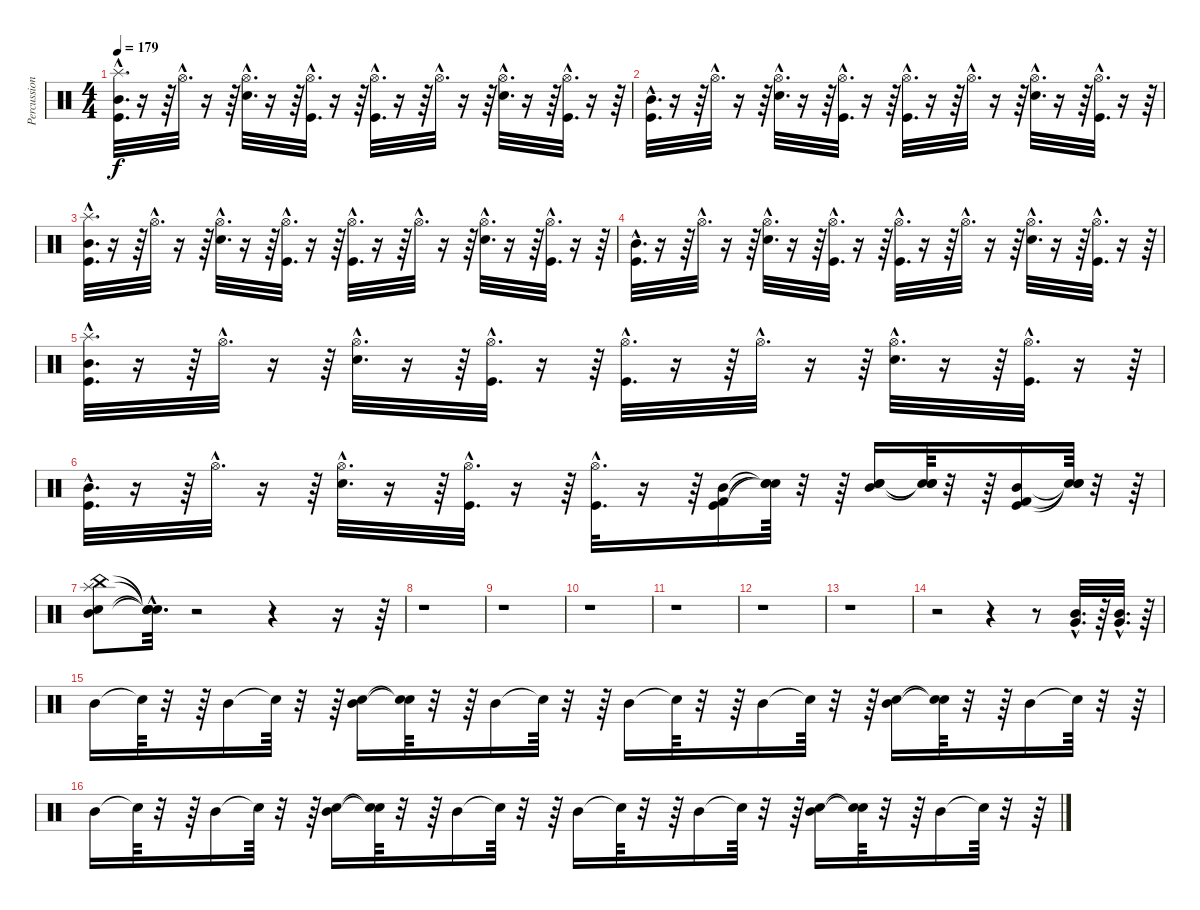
\track ("Percussion" "Percussion") {instrument percussion}
\staff {score}
\articulation defaults
\ts (4 4)
\tempo 179
\clef neutral
\ks c
("Splash (hit)"{hac} "Mid Tom (hit)"{hac} "Kick (hit)"{hac}).32{d dy f} r.16 r.64 "Hi-Hat (open)"{hac}.32{d} r.16 r.64 ("Hi-Hat (open)"{hac} "Snare (hit) 2"{hac}).32{d} r.16 r.64 ("Hi-Hat (open)"{hac} "Kick (hit)"{hac}).32{d} r.16 r.64 ("Hi-Hat (open)"{hac} "Kick (hit)"{hac}).32{d} r.16 r.64 "Hi-Hat (open)"{hac}.32{d} r.16 r.64 ("Hi-Hat (open)"{hac} "Snare (hit) 2"{hac}).32{d} r.16 r.64 ("Hi-Hat (open)"{hac} "Kick (hit)"{hac}).32{d} r.16 r.64 |
("Mid Tom (hit)"{hac} "Kick (hit)"{hac}).32{d} r.16 r.64 "Hi-Hat (open)"{hac}.32{d} r.16 r.64 ("Hi-Hat (open)"{hac} "Snare (hit) 2"{hac}).32{d} r.16 r.64 ("Hi-Hat (open)"{hac} "Kick (hit)"{hac}).32{d} r.16 r.64 ("Hi-Hat (open)"{hac} "Kick (hit)"{hac}).32{d} r.16 r.64 "Hi-Hat (open)"{hac}.32{d} r.16 r.64 ("Hi-Hat (open)"{hac} "Snare (hit) 2"{hac}).32{d} r.16 r.64 ("Hi-Hat (open)"{hac} "Kick (hit)"{hac}).32{d} r.16 r.64 |
("Splash (hit)"{hac} "Mid Tom (hit)"{hac} "Kick (hit)"{hac}).32{d} r.16 r.64 "Hi-Hat (open)"{hac}.32{d} r.16 r.64 ("Hi-Hat (open)"{hac} "Snare (hit) 2"{hac}).32{d} r.16 r.64 ("Hi-Hat (open)"{hac} "Kick (hit)"{hac}).32{d} r.16 r.64 ("Hi-Hat (open)"{hac} "Kick (hit)"{hac}).32{d} r.16 r.64 "Hi-Hat (open)"{hac}.32{d} r.16 r.64 ("Hi-Hat (open)"{hac} "Snare (hit) 2"{hac}).32{d} r.16 r.64 ("Hi-Hat (open)"{hac} "Kick (hit)"{hac}).32{d} r.16 r.64 |
("Mid Tom (hit)"{hac} "Kick (hit)"{hac}).32{d} r.16 r.64 "Hi-Hat (open)"{hac}.32{d} r.16 r.64 ("Hi-Hat (open)"{hac} "Snare (hit) 2"{hac}).32{d} r.16 r.64 ("Hi-Hat (open)"{hac} "Kick (hit)"{hac}).32{d} r.16 r.64 ("Hi-Hat (open)"{hac} "Kick (hit)"{hac}).32{d} r.16 r.64 "Hi-Hat (open)"{hac}.32{d} r.16 r.64 ("Hi-Hat (open)"{hac} "Snare (hit) 2"{hac}).32{d} r.16 r.64 ("Hi-Hat (open)"{hac} "Kick (hit)"{hac}).32{d} r.16 r.64 |
("Splash (hit)"{hac} "Mid Tom (hit)"{hac} "Kick (hit)"{hac}).32{d} r.16 r.64 "Hi-Hat (open)"{hac}.32{d} r.16 r.64 ("Hi-Hat (open)"{hac} "Snare (hit) 2"{hac}).32{d} r.16 r.64 ("Hi-Hat (open)"{hac} "Kick (hit)"{hac}).32{d} r.16 r.64 ("Hi-Hat (open)"{hac} "Kick (hit)"{hac}).32{d} r.16 r.64 "Hi-Hat (open)"{hac}.32{d} r.16 r.64 ("Hi-Hat (open)"{hac} "Snare (hit) 2"{hac}).32{d} r.16 r.64 ("Hi-Hat (open)"{hac} "Kick (hit)"{hac}).32{d} r.16 r.64 |
("Mid Tom (hit)"{hac} "Kick (hit)"{hac}).32{d} r.16 r.64 "Hi-Hat (open)"{hac}.32{d} r.16 r.64 ("Hi-Hat (open)"{hac} "Snare (hit) 2"{hac}).32{d} r.16 r.64 ("Hi-Hat (open)"{hac} "Kick (hit)"{hac}).32{d} r.16 r.64 ("Hi-Hat (open)"{hac} "Kick (hit)"{hac}).32{d} r.16 r.64 ("Mid Tom (hit)" "Kick (hit) 2" "Kick (hit)").16 ("Snare (hit)"{t} "Snare (hit)"{t} "Snare (hit)"{t}).64 r.32 r.64 ("Mid Tom (hit)" "Snare (hit) 2" "Electric Snare (hit)").16 ("Snare (hit)"{t} "Snare (hit)"{t} "Snare (hit)"{t}).64 r.32 r.64 ("Mid Tom (hit)" "Kick (hit)" "Kick (hit) 2").16 ("Snare (hit)"{t} "Snare (hit)"{t} "Snare (hit)"{t}).64 r.32 r.64 |
("Splash (hit)" "China (hit)" "Snare (hit) 2" "Mid Tom (hit)").8 ("Snare (hit)"{hac t} "Snare (hit)"{hac t} "Snare (hit)"{hac t} "Snare (hit)"{hac t}).32{d} r.2 r.4 r.16 r.64 |
r.1 |
r.1 |
r.1 |
r.1 |
r.1 |
r.1 |
r.2 r.4 r.8 ("Mid Tom (hit)"{hac} "Very Low Tom (hit)"{hac}).32{d} r.64 ("Mid Tom (hit)"{hac} "Very Low Tom (hit)"{hac}).32{d} r.64 |
"Mid Tom (hit)".16 "Snare (hit)"{t}.64 r.32 r.64 "Mid Tom (hit)".16 "Snare (hit)"{t}.64 r.32 r.64 ("Mid Tom (hit)" "Snare (hit) 2").16 ("Snare (hit)"{t} "Snare (hit)"{t}).64 r.32 r.64 "Mid Tom (hit)".16 "Snare (hit)"{t}.64 r.32 r.64 "Mid Tom (hit)".16 "Snare (hit)"{t}.64 r.32 r.64 "Mid Tom (hit)".16 "Snare (hit)"{t}.64 r.32 r.64 ("Mid Tom (hit)" "Snare (hit) 2").16 ("Snare (hit)"{t} "Snare (hit)"{t}).64 r.32 r.64 "Mid Tom (hit)".16 "Snare (hit)"{t}.64 r.32 r.64 |
"Mid Tom (hit)".16 "Snare (hit)"{t}.64 r.32 r.64 "Mid Tom (hit)".16 "Snare (hit)"{t}.64 r.32 r.64 ("Mid Tom (hit)" "Snare (hit) 2").16 ("Snare (hit)"{t} "Snare (hit)"{t}).64 r.32 r.64 "Mid Tom (hit)".16 "Snare (hit)"{t}.64 r.32 r.64 "Mid Tom (hit)".16 "Snare (hit)"{t}.64 r.32 r.64 "Mid Tom (hit)".16 "Snare (hit)"{t}.64 r.32 r.64 ("Mid Tom (hit)" "Snare (hit) 2").16 ("Snare (hit)"{t} "Snare (hit)"{t}).64 r.32 r.64 "Mid Tom (hit)".16 "Snare (hit)"{t}.64 r.32 r.64
